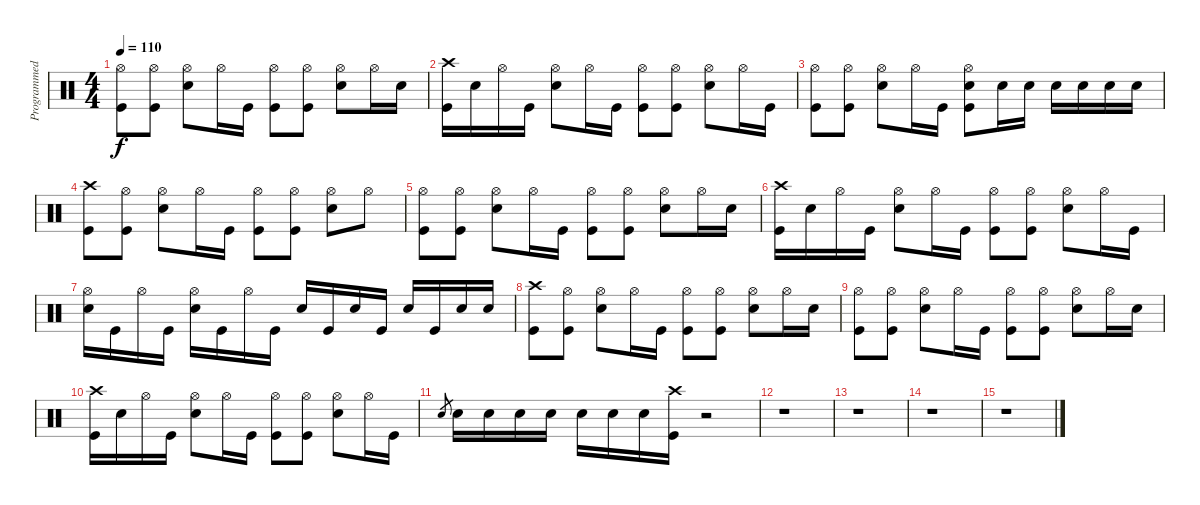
\track ("Programmed Drums" "Programmed") {instrument percussion}
\staff {score}
\articulation defaults
\ts (4 4)
\tempo 110
\clef neutral
\ks c
("Hi-Hat (open)" "Kick (hit)").8{dy f} ("Hi-Hat (open)" "Kick (hit)").8 ("Hi-Hat (open)" "Electric Snare (hit)").8 "Hi-Hat (open)".16 "Kick (hit)".16 ("Hi-Hat (open)" "Kick (hit)").8 ("Hi-Hat (open)" "Kick (hit)").8 ("Hi-Hat (open)" "Electric Snare (hit)").8 "Hi-Hat (open)".16 "Electric Snare (hit)".16 |
("Crash high (hit)" "Kick (hit)").16 "Electric Snare (hit)".16 "Hi-Hat (open)".16 "Kick (hit)".16 ("Hi-Hat (open)" "Electric Snare (hit)").8 "Hi-Hat (open)".16 "Kick (hit)".16 ("Hi-Hat (open)" "Kick (hit)").8 ("Hi-Hat (open)" "Kick (hit)").8 ("Hi-Hat (open)" "Electric Snare (hit)").8 "Hi-Hat (open)".16 "Kick (hit)".16 |
("Hi-Hat (open)" "Kick (hit)").8 ("Hi-Hat (open)" "Kick (hit)").8 ("Hi-Hat (open)" "Electric Snare (hit)").8 "Hi-Hat (open)".16 "Kick (hit)".16 ("Hi-Hat (open)" "Electric Snare (hit)" "Kick (hit)").8 "Electric Snare (hit)".16 "Electric Snare (hit)".16 "Electric Snare (hit)".16 "Electric Snare (hit)".16 "Electric Snare (hit)".16 "Electric Snare (hit)".16 |
("Crash high (hit)" "Kick (hit)").8 ("Hi-Hat (open)" "Kick (hit)").8 ("Hi-Hat (open)" "Electric Snare (hit)").8 "Hi-Hat (open)".16 "Kick (hit)".16 ("Hi-Hat (open)" "Kick (hit)").8 ("Hi-Hat (open)" "Kick (hit)").8 ("Hi-Hat (open)" "Electric Snare (hit)").8 "Hi-Hat (open)".8 |
("Hi-Hat (open)" "Kick (hit)").8 ("Hi-Hat (open)" "Kick (hit)").8 ("Hi-Hat (open)" "Electric Snare (hit)").8 "Hi-Hat (open)".16 "Kick (hit)".16 ("Hi-Hat (open)" "Kick (hit)").8 ("Hi-Hat (open)" "Kick (hit)").8 ("Hi-Hat (open)" "Electric Snare (hit)").8 "Hi-Hat (open)".16 "Electric Snare (hit)".16 |
("Crash high (hit)" "Kick (hit)").16 "Electric Snare (hit)".16 "Hi-Hat (open)".16 "Kick (hit)".16 ("Hi-Hat (open)" "Electric Snare (hit)").8 "Hi-Hat (open)".16 "Kick (hit)".16 ("Hi-Hat (open)" "Kick (hit)").8 ("Hi-Hat (open)" "Kick (hit)").8 ("Hi-Hat (open)" "Electric Snare (hit)").8 "Hi-Hat (open)".16 "Kick (hit)".16 |
("Hi-Hat (open)" "Electric Snare (hit)").16 "Kick (hit)".16 "Hi-Hat (open)".16 "Kick (hit)".16 ("Hi-Hat (open)" "Electric Snare (hit)").16 "Kick (hit)".16 "Hi-Hat (open)".16 "Kick (hit)".16 "Electric Snare (hit)".16 "Kick (hit)".16 "Electric Snare (hit)".16 "Kick (hit)".16 "Electric Snare (hit)".16 "Kick (hit)".16 "Electric Snare (hit)".16 "Electric Snare (hit)".16 |
("Crash high (hit)" "Kick (hit)").8 ("Hi-Hat (open)" "Kick (hit)").8 ("Hi-Hat (open)" "Electric Snare (hit)").8 "Hi-Hat (open)".16 "Kick (hit)".16 ("Hi-Hat (open)" "Kick (hit)").8 ("Hi-Hat (open)" "Kick (hit)").8 ("Hi-Hat (open)" "Electric Snare (hit)").8 "Hi-Hat (open)".16 "Electric Snare (hit)".16 |
("Hi-Hat (open)" "Kick (hit)").8 ("Hi-Hat (open)" "Kick (hit)").8 ("Hi-Hat (open)" "Electric Snare (hit)").8 "Hi-Hat (open)".16 "Kick (hit)".16 ("Hi-Hat (open)" "Kick (hit)").8 ("Hi-Hat (open)" "Kick (hit)").8 ("Hi-Hat (open)" "Electric Snare (hit)").8 "Hi-Hat (open)".16 "Electric Snare (hit)".16 |
("Crash high (hit)" "Kick (hit)").16 "Electric Snare (hit)".16 "Hi-Hat (open)".16 "Kick (hit)".16 ("Hi-Hat (open)" "Electric Snare (hit)").8 "Hi-Hat (open)".16 "Kick (hit)".16 ("Hi-Hat (open)" "Kick (hit)").8 ("Hi-Hat (open)" "Kick (hit)").8 ("Hi-Hat (open)" "Electric Snare (hit)").8 "Hi-Hat (open)".16 "Kick (hit)".16 |
"Electric Snare (hit)".8{gr} "Electric Snare (hit)".16 "Electric Snare (hit)".16 "Electric Snare (hit)".16 "Electric Snare (hit)".16 "Electric Snare (hit)".16 "Electric Snare (hit)".16 "Electric Snare (hit)".16 ("Crash high (hit)" "Kick (hit)").16 r.2 |
r.1 |
r.1 |
r.1 |
r.1
